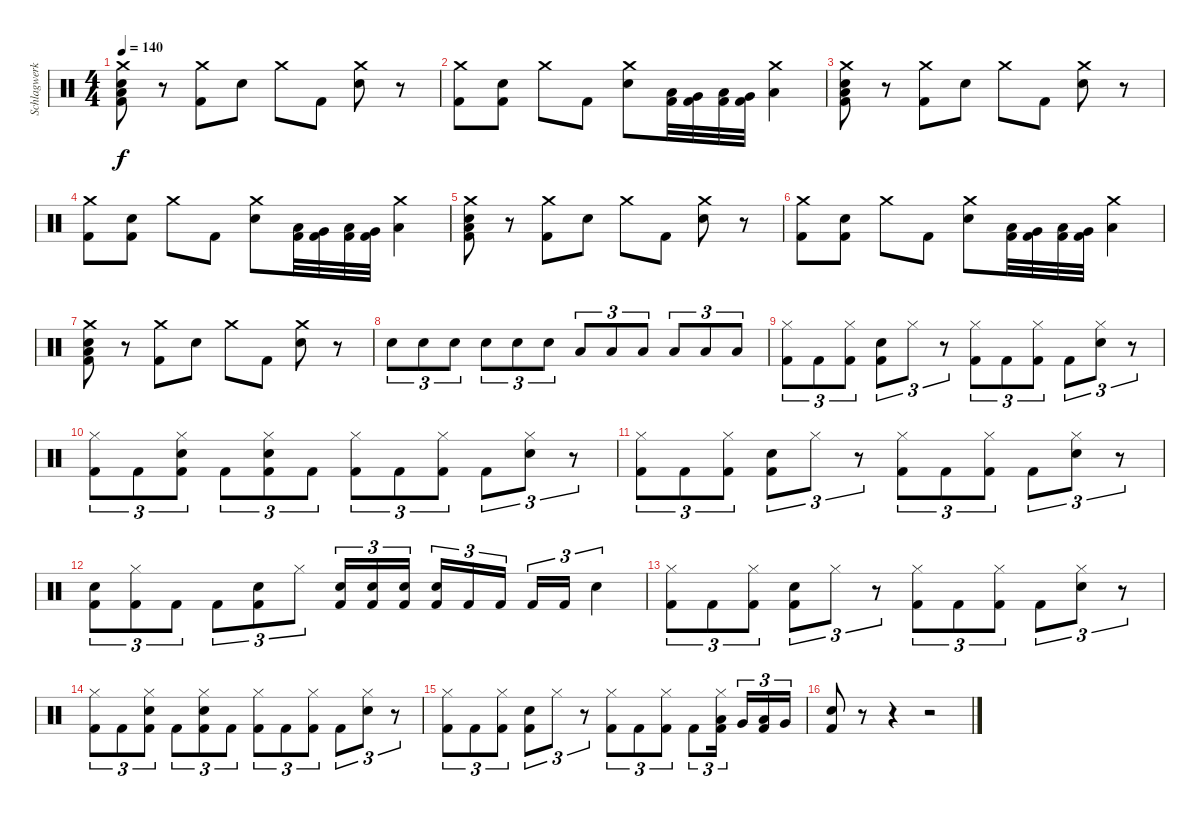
\track ("Schlagwerk" "Schlagwerk") {instrument percussion}
\staff {score}
\articulation defaults
\ts (4 4)
\tempo 140
\clef neutral
\ks c
("Crash medium (hit)" "Snare (hit) 2" "Low Floor Tom (hit)" "Kick (hit) 2").8{dy f} r.8 ("Crash medium (hit)" "Kick (hit) 2").8 "Snare (hit) 2".8 "Crash medium (hit)".8 "Kick (hit) 2".8 ("Crash medium (hit)" "Snare (hit) 2").8 r.8 |
("Crash medium (hit)" "Kick (hit) 2").8 ("Snare (hit) 2" "Kick (hit) 2").8 "Crash medium (hit)".8 "Kick (hit) 2".8 ("Crash medium (hit)" "Snare (hit) 2").8 ("Low Tom (hit)" "Kick (hit) 2").32 ("Very Low Tom (hit)" "Kick (hit) 2").32 ("Low Tom (hit)" "Kick (hit) 2").32 ("Very Low Tom (hit)" "Kick (hit) 2").32 ("Crash medium (hit)" "Low Floor Tom (hit)").4 |
("Crash medium (hit)" "Snare (hit) 2" "Low Floor Tom (hit)" "Kick (hit) 2").8 r.8 ("Crash medium (hit)" "Kick (hit) 2").8 "Snare (hit) 2".8 "Crash medium (hit)".8 "Kick (hit) 2".8 ("Crash medium (hit)" "Snare (hit) 2").8 r.8 |
("Crash medium (hit)" "Kick (hit) 2").8 ("Snare (hit) 2" "Kick (hit) 2").8 "Crash medium (hit)".8 "Kick (hit) 2".8 ("Crash medium (hit)" "Snare (hit) 2").8 ("Low Tom (hit)" "Kick (hit) 2").32 ("Very Low Tom (hit)" "Kick (hit) 2").32 ("Low Tom (hit)" "Kick (hit) 2").32 ("Very Low Tom (hit)" "Kick (hit) 2").32 ("Crash medium (hit)" "Low Floor Tom (hit)").4 |
("Crash medium (hit)" "Snare (hit) 2" "Low Floor Tom (hit)" "Kick (hit) 2").8 r.8 ("Crash medium (hit)" "Kick (hit) 2").8 "Snare (hit) 2".8 "Crash medium (hit)".8 "Kick (hit) 2".8 ("Crash medium (hit)" "Snare (hit) 2").8 r.8 |
("Crash medium (hit)" "Kick (hit) 2").8 ("Snare (hit) 2" "Kick (hit) 2").8 "Crash medium (hit)".8 "Kick (hit) 2".8 ("Crash medium (hit)" "Snare (hit) 2").8 ("Low Tom (hit)" "Kick (hit) 2").32 ("Very Low Tom (hit)" "Kick (hit) 2").32 ("Low Tom (hit)" "Kick (hit) 2").32 ("Very Low Tom (hit)" "Kick (hit) 2").32 ("Crash medium (hit)" "Low Floor Tom (hit)").4 |
("Crash medium (hit)" "Snare (hit) 2" "Low Floor Tom (hit)" "Kick (hit) 2").8 r.8 ("Crash medium (hit)" "Kick (hit) 2").8 "Snare (hit) 2".8 "Crash medium (hit)".8 "Kick (hit) 2".8 ("Crash medium (hit)" "Snare (hit) 2").8 r.8 |
"Snare (hit) 2".8{tu (3 2)} "Snare (hit) 2".8{tu (3 2)} "Snare (hit) 2".8{tu (3 2)} "Snare (hit) 2".8{tu (3 2)} "Snare (hit) 2".8{tu (3 2)} "Snare (hit) 2".8{tu (3 2)} "Low Tom (hit)".8{tu (3 2)} "Low Tom (hit)".8{tu (3 2)} "Low Tom (hit)".8{tu (3 2)} "Low Tom (hit)".8{tu (3 2)} "Low Tom (hit)".8{tu (3 2)} "Low Tom (hit)".8{tu (3 2)} |
("Hi-Hat (closed)" "Kick (hit) 2").8{tu (3 2)} "Kick (hit) 2".8{tu (3 2)} ("Hi-Hat (closed)" "Kick (hit) 2").8{tu (3 2)} ("Snare (hit) 2" "Kick (hit) 2").8{tu (3 2)} "Hi-Hat (closed)".8{tu (3 2)} r.8{tu (3 2)} ("Hi-Hat (closed)" "Kick (hit) 2").8{tu (3 2)} "Kick (hit) 2".8{tu (3 2)} ("Hi-Hat (closed)" "Kick (hit) 2").8{tu (3 2)} "Kick (hit) 2".8{tu (3 2)} ("Hi-Hat (closed)" "Snare (hit) 2").8{tu (3 2)} r.8{tu (3 2)} |
("Hi-Hat (closed)" "Kick (hit) 2").8{tu (3 2)} "Kick (hit) 2".8{tu (3 2)} ("Hi-Hat (closed)" "Snare (hit) 2" "Kick (hit) 2").8{tu (3 2)} "Kick (hit) 2".8{tu (3 2)} ("Hi-Hat (closed)" "Snare (hit) 2" "Kick (hit) 2").8{tu (3 2)} "Kick (hit) 2".8{tu (3 2)} ("Hi-Hat (closed)" "Kick (hit) 2").8{tu (3 2)} "Kick (hit) 2".8{tu (3 2)} ("Hi-Hat (closed)" "Kick (hit) 2").8{tu (3 2)} "Kick (hit) 2".8{tu (3 2)} ("Hi-Hat (closed)" "Snare (hit) 2").8{tu (3 2)} r.8{tu (3 2)} |
("Hi-Hat (closed)" "Kick (hit) 2").8{tu (3 2)} "Kick (hit) 2".8{tu (3 2)} ("Hi-Hat (closed)" "Kick (hit) 2").8{tu (3 2)} ("Snare (hit) 2" "Kick (hit) 2").8{tu (3 2)} "Hi-Hat (closed)".8{tu (3 2)} r.8{tu (3 2)} ("Hi-Hat (closed)" "Kick (hit) 2").8{tu (3 2)} "Kick (hit) 2".8{tu (3 2)} ("Hi-Hat (closed)" "Kick (hit) 2").8{tu (3 2)} "Kick (hit) 2".8{tu (3 2)} ("Hi-Hat (closed)" "Snare (hit) 2").8{tu (3 2)} r.8{tu (3 2)} |
("Snare (hit) 2" "Kick (hit) 2").8{tu (3 2)} ("Hi-Hat (closed)" "Kick (hit) 2").8{tu (3 2)} "Kick (hit) 2".8{tu (3 2)} "Kick (hit) 2".8{tu (3 2)} ("Snare (hit) 2" "Kick (hit) 2").8{tu (3 2)} "Hi-Hat (closed)".8{tu (3 2)} ("Snare (hit) 2" "Kick (hit) 2").16{tu (3 2)} ("Snare (hit) 2" "Kick (hit) 2").16{tu (3 2)} ("Snare (hit) 2" "Kick (hit) 2").16{tu (3 2)} ("Snare (hit) 2" "Kick (hit) 2").16{tu (3 2)} "Kick (hit) 2".16{tu (3 2)} "Kick (hit) 2".16{tu (3 2)} "Kick (hit) 2".16{tu (3 2)} "Kick (hit) 2".16{tu (3 2)} "Snare (hit) 2".4{tu (3 2)} |
("Hi-Hat (closed)" "Kick (hit) 2").8{tu (3 2)} "Kick (hit) 2".8{tu (3 2)} ("Hi-Hat (closed)" "Kick (hit) 2").8{tu (3 2)} ("Snare (hit) 2" "Kick (hit) 2").8{tu (3 2)} "Hi-Hat (closed)".8{tu (3 2)} r.8{tu (3 2)} ("Hi-Hat (closed)" "Kick (hit) 2").8{tu (3 2)} "Kick (hit) 2".8{tu (3 2)} ("Hi-Hat (closed)" "Kick (hit) 2").8{tu (3 2)} "Kick (hit) 2".8{tu (3 2)} ("Hi-Hat (closed)" "Snare (hit) 2").8{tu (3 2)} r.8{tu (3 2)} |
("Hi-Hat (closed)" "Kick (hit) 2").8{tu (3 2)} "Kick (hit) 2".8{tu (3 2)} ("Hi-Hat (closed)" "Snare (hit) 2" "Kick (hit) 2").8{tu (3 2)} "Kick (hit) 2".8{tu (3 2)} ("Hi-Hat (closed)" "Snare (hit) 2" "Kick (hit) 2").8{tu (3 2)} "Kick (hit) 2".8{tu (3 2)} ("Hi-Hat (closed)" "Kick (hit) 2").8{tu (3 2)} "Kick (hit) 2".8{tu (3 2)} ("Hi-Hat (closed)" "Kick (hit) 2").8{tu (3 2)} "Kick (hit) 2".8{tu (3 2)} ("Hi-Hat (closed)" "Snare (hit) 2").8{tu (3 2)} r.8{tu (3 2)} |
("Hi-Hat (closed)" "Kick (hit) 2").8{tu (3 2)} "Kick (hit) 2".8{tu (3 2)} ("Hi-Hat (closed)" "Kick (hit) 2").8{tu (3 2)} ("Snare (hit) 2" "Kick (hit) 2").8{tu (3 2)} "Hi-Hat (closed)".8{tu (3 2)} r.8{tu (3 2)} ("Hi-Hat (closed)" "Kick (hit) 2").8{tu (3 2)} "Kick (hit) 2".8{tu (3 2)} ("Hi-Hat (closed)" "Kick (hit) 2").8{tu (3 2)} "Kick (hit) 2".8{tu (3 2)} ("Hi-Hat (closed)" "Low Tom (hit)" "Kick (hit) 2").16{tu (3 2)} "Very Low Tom (hit)".16{tu (3 2)} ("Low Tom (hit)" "Kick (hit) 2").16{tu (3 2)} "Very Low Tom (hit)".16{tu (3 2)} |
("Snare (hit) 2" "Kick (hit) 2").8 r.8 r.4 r.2
